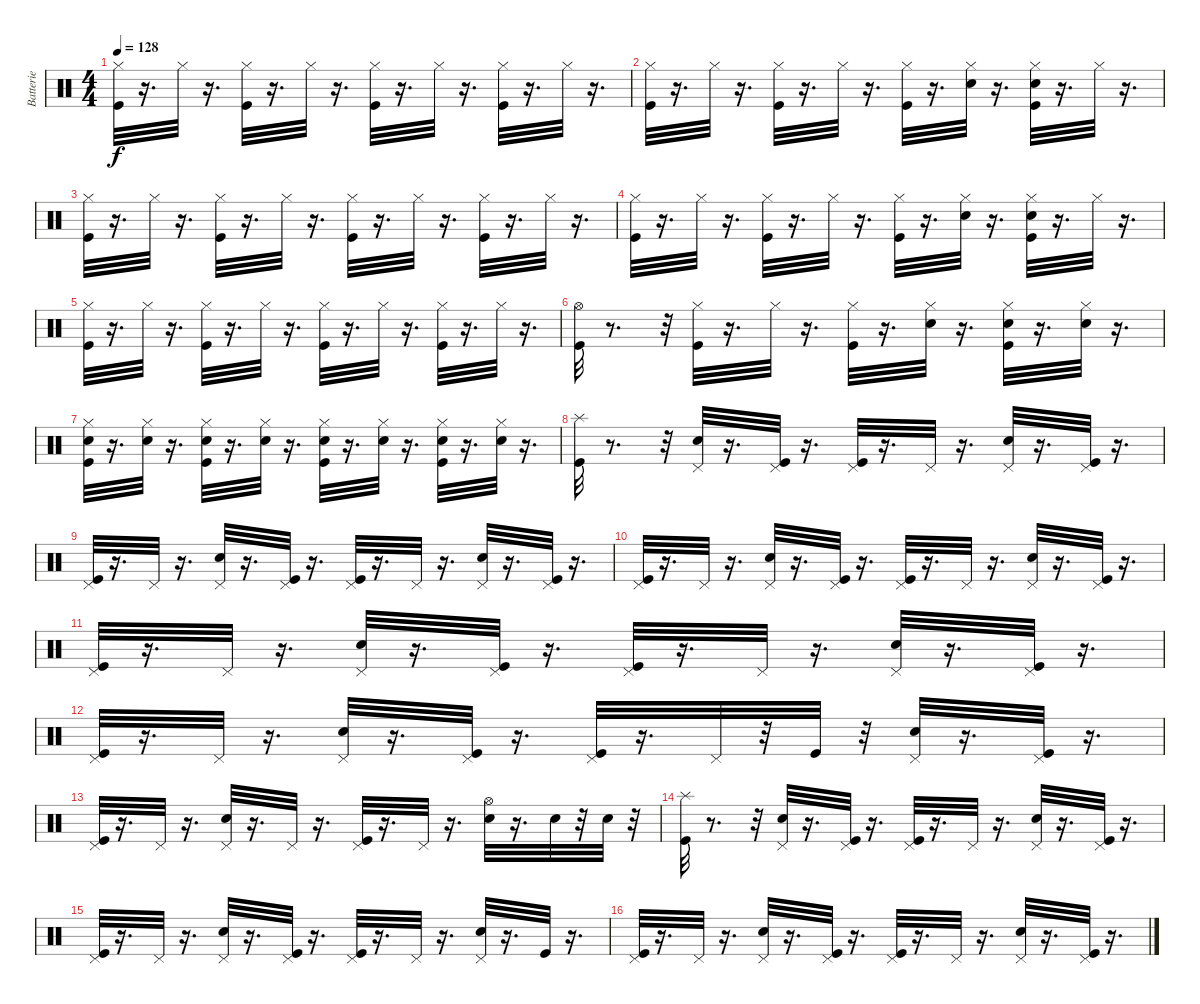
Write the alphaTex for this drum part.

\track ("Batterie" "Batterie") {instrument percussion}
\staff {score}
\articulation defaults
\ts (4 4)
\tempo 128
\clef neutral
\ks c
("Kick (hit)" "Hi-Hat (closed)").32{dy f} r.16{d} "Hi-Hat (closed)".32 r.16{d} ("Kick (hit)" "Hi-Hat (closed)").32 r.16{d} "Hi-Hat (closed)".32 r.16{d} ("Kick (hit)" "Hi-Hat (closed)").32 r.16{d} "Hi-Hat (closed)".32 r.16{d} ("Kick (hit)" "Hi-Hat (closed)").32 r.16{d} "Hi-Hat (closed)".32 r.16{d} |
("Kick (hit)" "Hi-Hat (closed)").32 r.16{d} "Hi-Hat (closed)".32 r.16{d} ("Kick (hit)" "Hi-Hat (closed)").32 r.16{d} "Hi-Hat (closed)".32 r.16{d} ("Kick (hit)" "Hi-Hat (closed)").32 r.16{d} ("Snare (hit) 2" "Hi-Hat (closed)").32 r.16{d} ("Snare (hit) 2" "Kick (hit)" "Hi-Hat (closed)").32 r.16{d} "Hi-Hat (closed)".32 r.16{d} |
("Kick (hit)" "Hi-Hat (closed)").32 r.16{d} "Hi-Hat (closed)".32 r.16{d} ("Kick (hit)" "Hi-Hat (closed)").32 r.16{d} "Hi-Hat (closed)".32 r.16{d} ("Kick (hit)" "Hi-Hat (closed)").32 r.16{d} "Hi-Hat (closed)".32 r.16{d} ("Kick (hit)" "Hi-Hat (closed)").32 r.16{d} "Hi-Hat (closed)".32 r.16{d} |
("Kick (hit)" "Hi-Hat (closed)").32 r.16{d} "Hi-Hat (closed)".32 r.16{d} ("Kick (hit)" "Hi-Hat (closed)").32 r.16{d} "Hi-Hat (closed)".32 r.16{d} ("Kick (hit)" "Hi-Hat (closed)").32 r.16{d} ("Snare (hit) 2" "Hi-Hat (closed)").32 r.16{d} ("Snare (hit) 2" "Kick (hit)" "Hi-Hat (closed)").32 r.16{d} "Hi-Hat (closed)".32 r.16{d} |
("Kick (hit)" "Hi-Hat (closed)").32 r.16{d} "Hi-Hat (closed)".32 r.16{d} ("Kick (hit)" "Hi-Hat (closed)").32 r.16{d} "Hi-Hat (closed)".32 r.16{d} ("Kick (hit)" "Hi-Hat (closed)").32 r.16{d} "Hi-Hat (closed)".32 r.16{d} ("Kick (hit)" "Hi-Hat (closed)").32 r.16{d} "Hi-Hat (closed)".32 r.16{d} |
("Hi-Hat (open)" "Kick (hit)").32 r.8{d} r.32 ("Kick (hit)" "Hi-Hat (closed)").32 r.16{d} "Hi-Hat (closed)".32 r.16{d} ("Kick (hit)" "Hi-Hat (closed)").32 r.16{d} ("Snare (hit) 2" "Hi-Hat (closed)").32 r.16{d} ("Snare (hit) 2" "Kick (hit)" "Hi-Hat (closed)").32 r.16{d} ("Snare (hit) 2" "Hi-Hat (closed)").32 r.16{d} |
("Snare (hit) 2" "Kick (hit)" "Hi-Hat (closed)").32 r.16{d} ("Snare (hit) 2" "Hi-Hat (closed)").32 r.16{d} ("Snare (hit) 2" "Kick (hit)" "Hi-Hat (closed)").32 r.16{d} ("Snare (hit) 2" "Hi-Hat (closed)").32 r.16{d} ("Snare (hit) 2" "Kick (hit)" "Hi-Hat (closed)").32 r.16{d} ("Snare (hit) 2" "Hi-Hat (closed)").32 r.16{d} ("Snare (hit) 2" "Kick (hit)" "Hi-Hat (closed)").32 r.16{d} ("Snare (hit) 2" "Hi-Hat (closed)").32 r.16{d} |
("Kick (hit)" "Splash (hit)").32 r.8{d} r.32 ("Pedal Hi-Hat (hit)" "Snare (hit) 2").32 r.16{d} ("Kick (hit)" "Pedal Hi-Hat (hit)").32 r.16{d} ("Pedal Hi-Hat (hit)" "Kick (hit)").32 r.16{d} "Pedal Hi-Hat (hit)".32 r.16{d} ("Pedal Hi-Hat (hit)" "Snare (hit) 2").32 r.16{d} ("Kick (hit)" "Pedal Hi-Hat (hit)").32 r.16{d} |
("Pedal Hi-Hat (hit)" "Kick (hit)").32 r.16{d} "Pedal Hi-Hat (hit)".32 r.16{d} ("Pedal Hi-Hat (hit)" "Snare (hit) 2").32 r.16{d} ("Pedal Hi-Hat (hit)" "Kick (hit)").32 r.16{d} ("Pedal Hi-Hat (hit)" "Kick (hit)").32 r.16{d} "Pedal Hi-Hat (hit)".32 r.16{d} ("Pedal Hi-Hat (hit)" "Snare (hit) 2").32 r.16{d} ("Pedal Hi-Hat (hit)" "Kick (hit)").32 r.16{d} |
("Pedal Hi-Hat (hit)" "Kick (hit)").32 r.16{d} "Pedal Hi-Hat (hit)".32 r.16{d} ("Pedal Hi-Hat (hit)" "Snare (hit) 2").32 r.16{d} ("Kick (hit)" "Pedal Hi-Hat (hit)").32 r.16{d} ("Pedal Hi-Hat (hit)" "Kick (hit)").32 r.16{d} "Pedal Hi-Hat (hit)".32 r.16{d} ("Pedal Hi-Hat (hit)" "Snare (hit) 2").32 r.16{d} ("Kick (hit)" "Pedal Hi-Hat (hit)").32 r.16{d} |
("Pedal Hi-Hat (hit)" "Kick (hit)").32 r.16{d} "Pedal Hi-Hat (hit)".32 r.16{d} ("Pedal Hi-Hat (hit)" "Snare (hit) 2").32 r.16{d} ("Pedal Hi-Hat (hit)" "Kick (hit)").32 r.16{d} ("Pedal Hi-Hat (hit)" "Kick (hit)").32 r.16{d} "Pedal Hi-Hat (hit)".32 r.16{d} ("Pedal Hi-Hat (hit)" "Snare (hit) 2").32 r.16{d} ("Pedal Hi-Hat (hit)" "Kick (hit)").32 r.16{d} |
("Pedal Hi-Hat (hit)" "Kick (hit)").32 r.16{d} "Pedal Hi-Hat (hit)".32 r.16{d} ("Pedal Hi-Hat (hit)" "Snare (hit) 2").32 r.16{d} ("Kick (hit)" "Pedal Hi-Hat (hit)").32 r.16{d} ("Pedal Hi-Hat (hit)" "Kick (hit)").32 r.16{d} "Pedal Hi-Hat (hit)".32 r.32 "Kick (hit)".32 r.32 ("Pedal Hi-Hat (hit)" "Snare (hit) 2").32 r.16{d} ("Kick (hit)" "Pedal Hi-Hat (hit)").32 r.16{d} |
("Pedal Hi-Hat (hit)" "Kick (hit)").32 r.16{d} "Pedal Hi-Hat (hit)".32 r.16{d} ("Pedal Hi-Hat (hit)" "Snare (hit) 2").32 r.16{d} "Pedal Hi-Hat (hit)".32 r.16{d} ("Pedal Hi-Hat (hit)" "Kick (hit)").32 r.16{d} "Pedal Hi-Hat (hit)".32 r.16{d} ("Hi-Hat (open)" "Snare (hit) 2").32 r.16{d} "Snare (hit) 2".32 r.32 "Snare (hit) 2".32 r.32 |
("Splash (hit)" "Kick (hit)").32 r.8{d} r.32 ("Pedal Hi-Hat (hit)" "Snare (hit) 2").32 r.16{d} ("Kick (hit)" "Pedal Hi-Hat (hit)").32 r.16{d} ("Pedal Hi-Hat (hit)" "Kick (hit)").32 r.16{d} "Pedal Hi-Hat (hit)".32 r.16{d} ("Pedal Hi-Hat (hit)" "Snare (hit) 2").32 r.16{d} ("Kick (hit)" "Pedal Hi-Hat (hit)").32 r.16{d} |
("Pedal Hi-Hat (hit)" "Kick (hit)").32 r.16{d} "Pedal Hi-Hat (hit)".32 r.16{d} ("Pedal Hi-Hat (hit)" "Snare (hit) 2").32 r.16{d} ("Pedal Hi-Hat (hit)" "Kick (hit)").32 r.16{d} ("Pedal Hi-Hat (hit)" "Kick (hit)").32 r.16{d} "Pedal Hi-Hat (hit)".32 r.16{d} ("Pedal Hi-Hat (hit)" "Snare (hit) 2").32 r.16{d} "Kick (hit)".32 r.16{d} |
("Pedal Hi-Hat (hit)" "Kick (hit)").32 r.16{d} "Pedal Hi-Hat (hit)".32 r.16{d} ("Pedal Hi-Hat (hit)" "Snare (hit) 2").32 r.16{d} ("Kick (hit)" "Pedal Hi-Hat (hit)").32 r.16{d} ("Pedal Hi-Hat (hit)" "Kick (hit)").32 r.16{d} "Pedal Hi-Hat (hit)".32 r.16{d} ("Pedal Hi-Hat (hit)" "Snare (hit) 2").32 r.16{d} ("Kick (hit)" "Pedal Hi-Hat (hit)").32 r.16{d}
